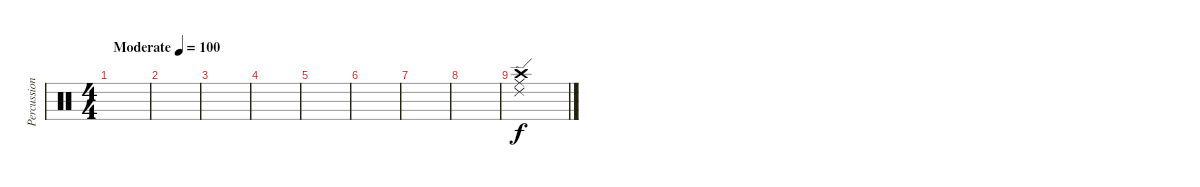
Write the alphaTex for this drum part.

\track ("Percussion" "Percussion") {instrument percussion}
\staff {score}
\articulation defaults
\ts (4 4)
\tempo (100 "Moderate")
\clef neutral
\ks c
|
|
|
|
|
|
|
|
("Ride (edge) 2" "Ride (middle)" "Crash high (hit)").1
